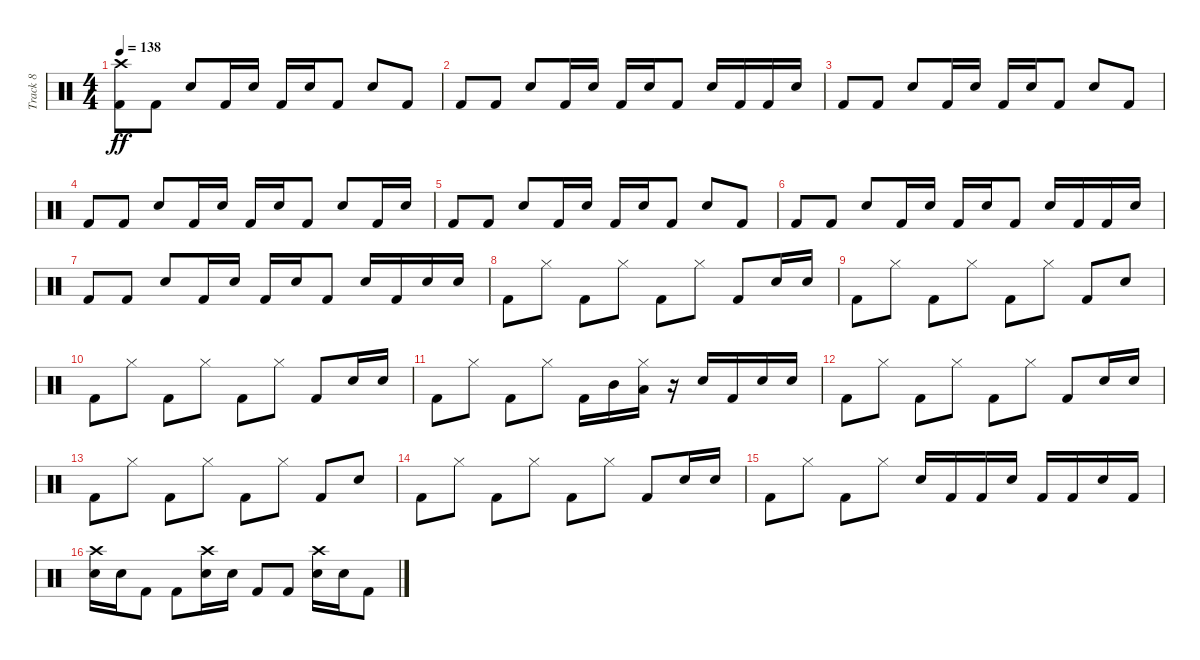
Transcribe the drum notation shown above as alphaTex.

\track ("Track 8" "Track 8") {instrument percussion}
\staff {score}
\articulation defaults
\ts (4 4)
\tempo 138
\clef neutral
\ks c
("Kick (hit) 2" "Crash high (hit)").8{dy ff} "Kick (hit) 2".8 "Snare (hit) 2".8 "Kick (hit) 2".16 "Snare (hit) 2".16 "Kick (hit) 2".16 "Snare (hit) 2".16 "Kick (hit) 2".8 "Snare (hit) 2".8 "Kick (hit) 2".8 |
"Kick (hit) 2".8 "Kick (hit) 2".8 "Snare (hit) 2".8 "Kick (hit) 2".16 "Snare (hit) 2".16 "Kick (hit) 2".16 "Snare (hit) 2".16 "Kick (hit) 2".8 "Snare (hit) 2".16 "Kick (hit) 2".16 "Kick (hit) 2".16 "Snare (hit) 2".16 |
"Kick (hit) 2".8 "Kick (hit) 2".8 "Snare (hit) 2".8 "Kick (hit) 2".16 "Snare (hit) 2".16 "Kick (hit) 2".16 "Snare (hit) 2".16 "Kick (hit) 2".8 "Snare (hit) 2".8 "Kick (hit) 2".8 |
"Kick (hit) 2".8 "Kick (hit) 2".8 "Snare (hit) 2".8 "Kick (hit) 2".16 "Snare (hit) 2".16 "Kick (hit) 2".16 "Snare (hit) 2".16 "Kick (hit) 2".8 "Snare (hit) 2".8 "Kick (hit) 2".16 "Snare (hit) 2".16 |
"Kick (hit) 2".8 "Kick (hit) 2".8 "Snare (hit) 2".8 "Kick (hit) 2".16 "Snare (hit) 2".16 "Kick (hit) 2".16 "Snare (hit) 2".16 "Kick (hit) 2".8 "Snare (hit) 2".8 "Kick (hit) 2".8 |
"Kick (hit) 2".8 "Kick (hit) 2".8 "Snare (hit) 2".8 "Kick (hit) 2".16 "Snare (hit) 2".16 "Kick (hit) 2".16 "Snare (hit) 2".16 "Kick (hit) 2".8 "Snare (hit) 2".16 "Kick (hit) 2".16 "Kick (hit) 2".16 "Snare (hit) 2".16 |
"Kick (hit) 2".8 "Kick (hit) 2".8 "Snare (hit) 2".8 "Kick (hit) 2".16 "Snare (hit) 2".16 "Kick (hit) 2".16 "Snare (hit) 2".16 "Kick (hit) 2".8 "Snare (hit) 2".16 "Kick (hit) 2".16 "Snare (hit) 2".16 "Snare (hit) 2".16 |
"Kick (hit) 2".8 "Hi-Hat (closed)".8 "Kick (hit) 2".8 "Hi-Hat (closed)".8 "Kick (hit) 2".8 "Hi-Hat (closed)".8 "Kick (hit) 2".8 "Snare (hit) 2".16 "Snare (hit) 2".16 |
"Kick (hit) 2".8 "Hi-Hat (closed)".8 "Kick (hit) 2".8 "Hi-Hat (closed)".8 "Kick (hit) 2".8 "Hi-Hat (closed)".8 "Kick (hit) 2".8 "Snare (hit) 2".8 |
"Kick (hit) 2".8 "Hi-Hat (closed)".8 "Kick (hit) 2".8 "Hi-Hat (closed)".8 "Kick (hit) 2".8 "Hi-Hat (closed)".8 "Kick (hit) 2".8 "Snare (hit) 2".16 "Snare (hit) 2".16 |
"Kick (hit) 2".8 "Hi-Hat (closed)".8 "Kick (hit) 2".8 "Hi-Hat (closed)".8 "Kick (hit) 2".16 "Mid Tom (hit)".16 ("Hi-Hat (closed)" "Low Tom (hit)").16 r.16 "Snare (hit) 2".16 "Kick (hit) 2".16 "Snare (hit) 2".16 "Snare (hit) 2".16 |
"Kick (hit) 2".8 "Hi-Hat (closed)".8 "Kick (hit) 2".8 "Hi-Hat (closed)".8 "Kick (hit) 2".8 "Hi-Hat (closed)".8 "Kick (hit) 2".8 "Snare (hit) 2".16 "Snare (hit) 2".16 |
"Kick (hit) 2".8 "Hi-Hat (closed)".8 "Kick (hit) 2".8 "Hi-Hat (closed)".8 "Kick (hit) 2".8 "Hi-Hat (closed)".8 "Kick (hit) 2".8 "Snare (hit) 2".8 |
"Kick (hit) 2".8 "Hi-Hat (closed)".8 "Kick (hit) 2".8 "Hi-Hat (closed)".8 "Kick (hit) 2".8 "Hi-Hat (closed)".8 "Kick (hit) 2".8 "Snare (hit) 2".16 "Snare (hit) 2".16 |
"Kick (hit) 2".8 "Hi-Hat (closed)".8 "Kick (hit) 2".8 "Hi-Hat (closed)".8 "Snare (hit) 2".16 "Kick (hit) 2".16 "Kick (hit) 2".16 "Snare (hit) 2".16 "Kick (hit) 2".16 "Kick (hit) 2".16 "Snare (hit) 2".16 "Kick (hit) 2".16 |
("Snare (hit) 2" "Crash high (hit)").16 "Snare (hit) 2".16 "Kick (hit) 2".8 "Kick (hit) 2".8 ("Snare (hit) 2" "Crash high (hit)").16 "Snare (hit) 2".16 "Kick (hit) 2".8 "Kick (hit) 2".8 ("Snare (hit) 2" "Crash high (hit)").16 "Snare (hit) 2".16 "Kick (hit) 2".8
